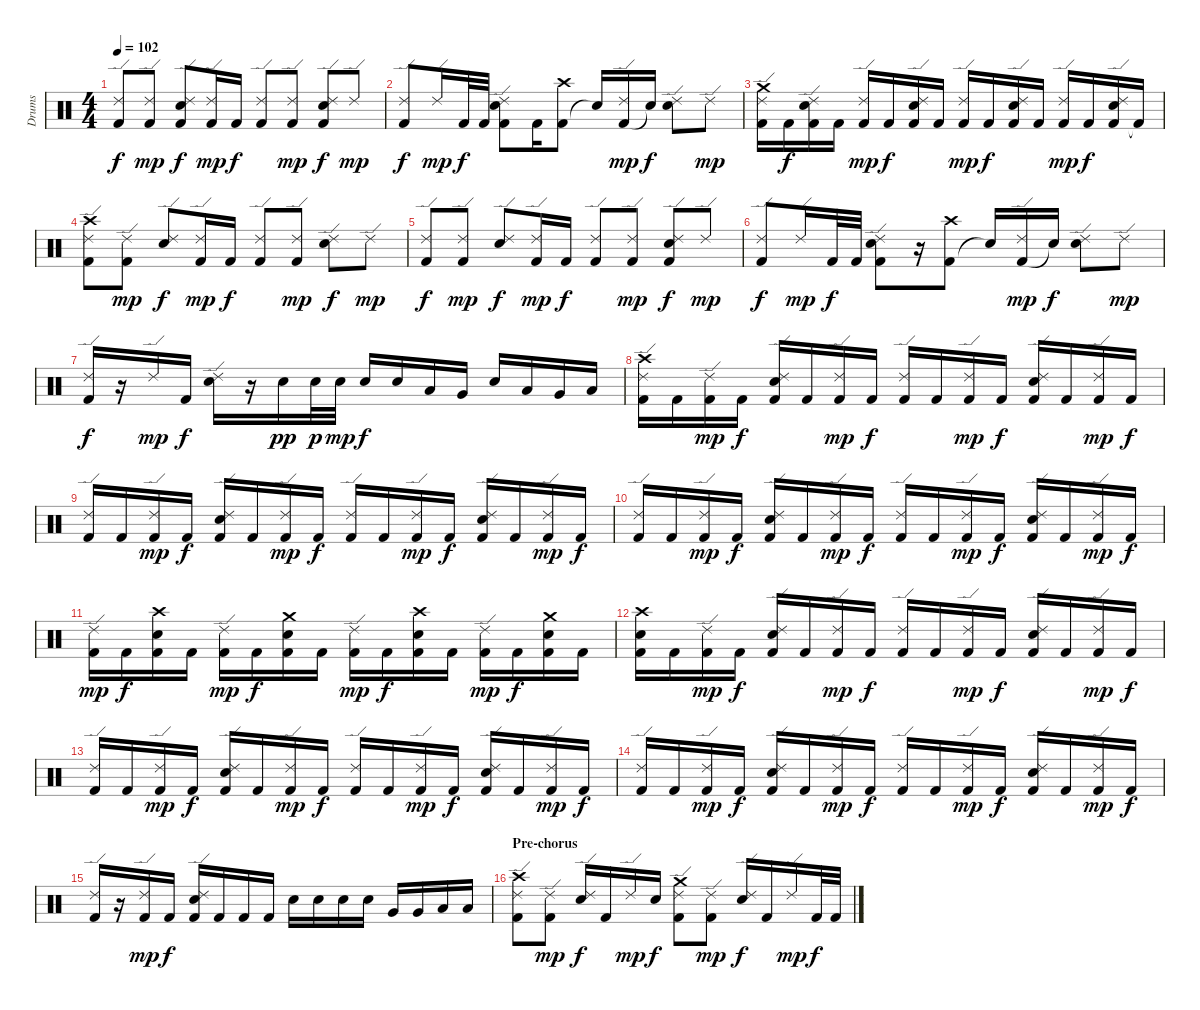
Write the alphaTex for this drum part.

\track ("Drums" "Drums") {instrument percussion}
\staff {score}
\articulation defaults
\ts (4 4)
\tempo 102
\clef neutral
\ks c
("Kick (hit) 2" "Ride (edge) 2").8{dy f} ("Kick (hit) 2" "Ride (edge) 2").8{dy mp} ("Kick (hit) 2" "Ride (edge) 2" "Electric Snare (hit)").8{dy f} ("Kick (hit) 2" "Ride (edge) 2").16{dy mp} "Kick (hit) 2".16{dy f} ("Kick (hit) 2" "Ride (edge) 2").8 ("Kick (hit) 2" "Ride (edge) 2").8{dy mp} ("Kick (hit) 2" "Ride (edge) 2" "Electric Snare (hit)").8{dy f} "Ride (edge) 2".8{dy mp} |
("Kick (hit) 2" "Ride (edge) 2").8{dy f} "Ride (edge) 2".16{dy mp} "Kick (hit) 2".32{dy f} "Kick (hit) 2".32 ("Kick (hit) 2" "Ride (edge) 2" "Electric Snare (hit)").8 "Kick (hit) 2".16 ("Kick (hit) 2" "Crash high (hit)").8 "Snare (hit)"{t}.16 ("Kick (hit) 2" "Ride (edge) 2").16{dy mp} "Snare (hit)"{t}.16{dy f} ("Ride (edge) 2" "Electric Snare (hit)").8 "Ride (edge) 2".8{dy mp} |
("Kick (hit) 2" "Ride (edge) 2" "Crash medium (hit)").16 "Kick (hit) 2".16{dy f} ("Kick (hit) 2" "Ride (edge) 2" "Electric Snare (hit)").16 "Kick (hit) 2".16 ("Kick (hit) 2" "Ride (edge) 2").16{dy mp} "Kick (hit) 2".16{dy f} ("Kick (hit) 2" "Ride (edge) 2" "Electric Snare (hit)").16 "Kick (hit) 2".16 ("Kick (hit) 2" "Ride (edge) 2").16{dy mp} "Kick (hit) 2".16{dy f} ("Kick (hit) 2" "Ride (edge) 2" "Electric Snare (hit)").16 "Kick (hit) 2".16 ("Kick (hit) 2" "Ride (edge) 2").16{dy mp} "Kick (hit) 2".16{dy f} ("Kick (hit) 2" "Ride (edge) 2" "Electric Snare (hit)").16 "Kick (hit) 2"{t}.16 |
("Kick (hit) 2" "Ride (edge) 2" "Crash high (hit)").8 ("Kick (hit) 2" "Ride (edge) 2").8{dy mp} ("Ride (edge) 2" "Electric Snare (hit)").8{dy f} ("Kick (hit) 2" "Ride (edge) 2").16{dy mp} "Kick (hit) 2".16{dy f} ("Kick (hit) 2" "Ride (edge) 2").8 ("Kick (hit) 2" "Ride (edge) 2").8{dy mp} ("Ride (edge) 2" "Electric Snare (hit)").8{dy f} "Ride (edge) 2".8{dy mp} |
("Kick (hit) 2" "Ride (edge) 2").8{dy f} ("Kick (hit) 2" "Ride (edge) 2").8{dy mp} ("Ride (edge) 2" "Electric Snare (hit)").8{dy f} ("Kick (hit) 2" "Ride (edge) 2").16{dy mp} "Kick (hit) 2".16{dy f} ("Kick (hit) 2" "Ride (edge) 2").8 ("Kick (hit) 2" "Ride (edge) 2").8{dy mp} ("Kick (hit) 2" "Ride (edge) 2" "Electric Snare (hit)").8{dy f} "Ride (edge) 2".8{dy mp} |
("Kick (hit) 2" "Ride (edge) 2").8{dy f} "Ride (edge) 2".16{dy mp} "Kick (hit) 2".32{dy f} "Kick (hit) 2".32 ("Kick (hit) 2" "Ride (edge) 2" "Electric Snare (hit)").8 r.16 ("Kick (hit) 2" "Crash high (hit)").8 "Snare (hit)"{t}.16 ("Kick (hit) 2" "Ride (edge) 2").16{dy mp} "Snare (hit)"{t}.16{dy f} ("Ride (edge) 2" "Electric Snare (hit)").8 "Ride (edge) 2".8{dy mp} |
("Kick (hit) 2" "Ride (edge) 2").16{dy f} r.16 "Ride (edge) 2".16{dy mp} "Kick (hit) 2".16{dy f} ("Ride (edge) 2" "Electric Snare (hit)").16 r.16 "Electric Snare (hit)".16{dy pp} "Electric Snare (hit)".32{dy p} "Electric Snare (hit)".32{dy mp} "Electric Snare (hit)".16{dy f} "Electric Snare (hit)".16 "Low Tom (hit)".16 "Very Low Tom (hit)".16 "Electric Snare (hit)".16 "Low Tom (hit)".16 "Very Low Tom (hit)".16 "Low Tom (hit)".16 |
("Kick (hit) 2" "Ride (edge) 2" "Crash high (hit)").16 "Kick (hit) 2".16 ("Kick (hit) 2" "Ride (edge) 2").16{dy mp} "Kick (hit) 2".16{dy f} ("Kick (hit) 2" "Ride (edge) 2" "Electric Snare (hit)").16 "Kick (hit) 2".16 ("Kick (hit) 2" "Ride (edge) 2").16{dy mp} "Kick (hit) 2".16{dy f} ("Kick (hit) 2" "Ride (edge) 2").16 "Kick (hit) 2".16 ("Kick (hit) 2" "Ride (edge) 2").16{dy mp} "Kick (hit) 2".16{dy f} ("Kick (hit) 2" "Ride (edge) 2" "Electric Snare (hit)").16 "Kick (hit) 2".16 ("Kick (hit) 2" "Ride (edge) 2").16{dy mp} "Kick (hit) 2".16{dy f} |
("Kick (hit) 2" "Ride (edge) 2").16 "Kick (hit) 2".16 ("Kick (hit) 2" "Ride (edge) 2").16{dy mp} "Kick (hit) 2".16{dy f} ("Kick (hit) 2" "Ride (edge) 2" "Electric Snare (hit)").16 "Kick (hit) 2".16 ("Kick (hit) 2" "Ride (edge) 2").16{dy mp} "Kick (hit) 2".16{dy f} ("Kick (hit) 2" "Ride (edge) 2").16 "Kick (hit) 2".16 ("Kick (hit) 2" "Ride (edge) 2").16{dy mp} "Kick (hit) 2".16{dy f} ("Kick (hit) 2" "Ride (edge) 2" "Electric Snare (hit)").16 "Kick (hit) 2".16 ("Kick (hit) 2" "Ride (edge) 2").16{dy mp} "Kick (hit) 2".16{dy f} |
("Kick (hit) 2" "Ride (edge) 2").16 "Kick (hit) 2".16 ("Kick (hit) 2" "Ride (edge) 2").16{dy mp} "Kick (hit) 2".16{dy f} ("Kick (hit) 2" "Ride (edge) 2" "Electric Snare (hit)").16 "Kick (hit) 2".16 ("Kick (hit) 2" "Ride (edge) 2").16{dy mp} "Kick (hit) 2".16{dy f} ("Kick (hit) 2" "Ride (edge) 2").16 "Kick (hit) 2".16 ("Kick (hit) 2" "Ride (edge) 2").16{dy mp} "Kick (hit) 2".16{dy f} ("Kick (hit) 2" "Ride (edge) 2" "Electric Snare (hit)").16 "Kick (hit) 2".16 ("Kick (hit) 2" "Ride (edge) 2").16{dy mp} "Kick (hit) 2".16{dy f} |
("Kick (hit) 2" "Ride (edge) 2").16{dy mp} "Kick (hit) 2".16{dy f} ("Kick (hit) 2" "Electric Snare (hit)" "Crash high (hit)").16 "Kick (hit) 2".16 ("Kick (hit) 2" "Ride (edge) 2").16{dy mp} "Kick (hit) 2".16{dy f} ("Kick (hit) 2" "Electric Snare (hit)" "Crash medium (hit)").16 "Kick (hit) 2".16 ("Kick (hit) 2" "Ride (edge) 2").16{dy mp} "Kick (hit) 2".16{dy f} ("Kick (hit) 2" "Electric Snare (hit)" "Crash high (hit)").16 "Kick (hit) 2".16 ("Kick (hit) 2" "Ride (edge) 2").16{dy mp} "Kick (hit) 2".16{dy f} ("Kick (hit) 2" "Electric Snare (hit)" "Crash medium (hit)").16 "Kick (hit) 2".16 |
("Kick (hit) 2" "Electric Snare (hit)" "Crash high (hit)").16 "Kick (hit) 2".16 ("Kick (hit) 2" "Ride (edge) 2").16{dy mp} "Kick (hit) 2".16{dy f} ("Kick (hit) 2" "Ride (edge) 2" "Electric Snare (hit)").16 "Kick (hit) 2".16 ("Kick (hit) 2" "Ride (edge) 2").16{dy mp} "Kick (hit) 2".16{dy f} ("Kick (hit) 2" "Ride (edge) 2").16 "Kick (hit) 2".16 ("Kick (hit) 2" "Ride (edge) 2").16{dy mp} "Kick (hit) 2".16{dy f} ("Kick (hit) 2" "Ride (edge) 2" "Electric Snare (hit)").16 "Kick (hit) 2".16 ("Kick (hit) 2" "Ride (edge) 2").16{dy mp} "Kick (hit) 2".16{dy f} |
("Kick (hit) 2" "Ride (edge) 2").16 "Kick (hit) 2".16 ("Kick (hit) 2" "Ride (edge) 2").16{dy mp} "Kick (hit) 2".16{dy f} ("Kick (hit) 2" "Ride (edge) 2" "Electric Snare (hit)").16 "Kick (hit) 2".16 ("Kick (hit) 2" "Ride (edge) 2").16{dy mp} "Kick (hit) 2".16{dy f} ("Kick (hit) 2" "Ride (edge) 2").16 "Kick (hit) 2".16 ("Kick (hit) 2" "Ride (edge) 2").16{dy mp} "Kick (hit) 2".16{dy f} ("Kick (hit) 2" "Ride (edge) 2" "Electric Snare (hit)").16 "Kick (hit) 2".16 ("Kick (hit) 2" "Ride (edge) 2").16{dy mp} "Kick (hit) 2".16{dy f} |
("Kick (hit) 2" "Ride (edge) 2").16 "Kick (hit) 2".16 ("Kick (hit) 2" "Ride (edge) 2").16{dy mp} "Kick (hit) 2".16{dy f} ("Kick (hit) 2" "Ride (edge) 2" "Electric Snare (hit)").16 "Kick (hit) 2".16 ("Kick (hit) 2" "Ride (edge) 2").16{dy mp} "Kick (hit) 2".16{dy f} ("Kick (hit) 2" "Ride (edge) 2").16 "Kick (hit) 2".16 ("Kick (hit) 2" "Ride (edge) 2").16{dy mp} "Kick (hit) 2".16{dy f} ("Kick (hit) 2" "Ride (edge) 2" "Electric Snare (hit)").16 "Kick (hit) 2".16 ("Kick (hit) 2" "Ride (edge) 2").16{dy mp} "Kick (hit) 2".16{dy f} |
("Kick (hit) 2" "Ride (edge) 2").16 r.16 ("Kick (hit) 2" "Ride (edge) 2").16{dy mp} "Kick (hit) 2".16{dy f} ("Kick (hit) 2" "Ride (edge) 2" "Electric Snare (hit)").16 "Kick (hit) 2".16 "Kick (hit) 2".16 "Kick (hit) 2".16 "Electric Snare (hit)".16 "Electric Snare (hit)".16 "Electric Snare (hit)".16 "Electric Snare (hit)".16 "Very Low Tom (hit)".16 "Very Low Tom (hit)".16 "Low Tom (hit)".16 "Low Tom (hit)".16 |
\section ("" "Pre-chorus")
("Kick (hit) 2" "Ride (edge) 2" "Crash high (hit)").8 ("Kick (hit) 2" "Ride (edge) 2").8{dy mp} ("Ride (edge) 2" "Electric Snare (hit)").16{dy f} "Kick (hit) 2".16 "Ride (edge) 2".16{dy mp} "Electric Snare (hit)".16{dy f} ("Kick (hit) 2" "Ride (edge) 2" "Crash medium (hit)").8 ("Kick (hit) 2" "Ride (edge) 2").8{dy mp} ("Ride (edge) 2" "Electric Snare (hit)").16{dy f} "Kick (hit) 2".16 "Ride (edge) 2".16{dy mp} "Kick (hit) 2".32{dy f} "Kick (hit) 2".32
